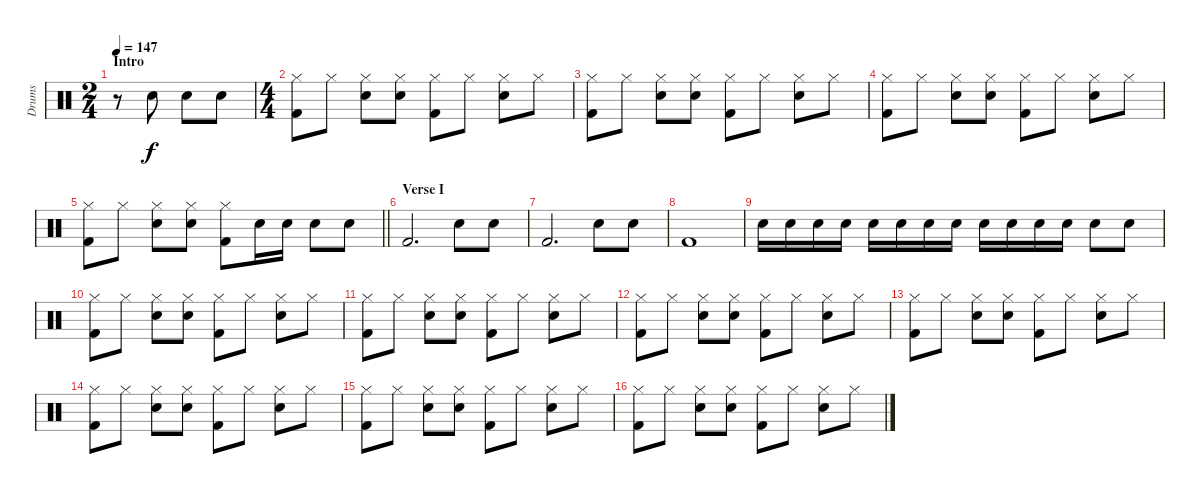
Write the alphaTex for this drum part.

\track ("Drums" "Drums") {instrument percussion}
\staff {score}
\articulation defaults
\ts (2 4)
\section ("" "Intro")
\tempo 147
\clef neutral
\ks c
r.8{dy f} "Snare (hit) 2".8 "Snare (hit) 2".8 "Snare (hit) 2".8 |
\ts (4 4)
("Hi-Hat (closed)" "Kick (hit) 2").8 "Hi-Hat (closed)".8 ("Hi-Hat (closed)" "Snare (hit) 2").8 ("Hi-Hat (closed)" "Snare (hit) 2").8 ("Hi-Hat (closed)" "Kick (hit) 2").8 "Hi-Hat (closed)".8 ("Hi-Hat (closed)" "Snare (hit) 2").8 "Hi-Hat (closed)".8 |
("Hi-Hat (closed)" "Kick (hit) 2").8 "Hi-Hat (closed)".8 ("Hi-Hat (closed)" "Snare (hit) 2").8 ("Hi-Hat (closed)" "Snare (hit) 2").8 ("Hi-Hat (closed)" "Kick (hit) 2").8 "Hi-Hat (closed)".8 ("Hi-Hat (closed)" "Snare (hit) 2").8 "Hi-Hat (closed)".8 |
("Hi-Hat (closed)" "Kick (hit) 2").8 "Hi-Hat (closed)".8 ("Hi-Hat (closed)" "Snare (hit) 2").8 ("Hi-Hat (closed)" "Snare (hit) 2").8 ("Hi-Hat (closed)" "Kick (hit) 2").8 "Hi-Hat (closed)".8 ("Hi-Hat (closed)" "Snare (hit) 2").8 "Hi-Hat (closed)".8 |
\barLineRight lightlight
("Hi-Hat (closed)" "Kick (hit) 2").8 "Hi-Hat (closed)".8 ("Hi-Hat (closed)" "Snare (hit) 2").8 ("Hi-Hat (closed)" "Snare (hit) 2").8 ("Hi-Hat (closed)" "Kick (hit) 2").8 "Snare (hit) 2".16 "Snare (hit) 2".16 "Snare (hit) 2".8 "Snare (hit) 2".8 |
\section ("" "Verse I")
"Kick (hit) 2".2{d} "Snare (hit) 2".8 "Snare (hit) 2".8 |
"Kick (hit) 2".2{d} "Snare (hit) 2".8 "Snare (hit) 2".8 |
"Kick (hit) 2".1 |
"Snare (hit) 2".16 "Snare (hit) 2".16 "Snare (hit) 2".16 "Snare (hit) 2".16 "Snare (hit) 2".16 "Snare (hit) 2".16 "Snare (hit) 2".16 "Snare (hit) 2".16 "Snare (hit) 2".16 "Snare (hit) 2".16 "Snare (hit) 2".16 "Snare (hit) 2".16 "Snare (hit) 2".8 "Snare (hit) 2".8 |
("Hi-Hat (closed)" "Kick (hit) 2").8 "Hi-Hat (closed)".8 ("Hi-Hat (closed)" "Snare (hit) 2").8 ("Hi-Hat (closed)" "Snare (hit) 2").8 ("Hi-Hat (closed)" "Kick (hit) 2").8 "Hi-Hat (closed)".8 ("Hi-Hat (closed)" "Snare (hit) 2").8 "Hi-Hat (closed)".8 |
("Hi-Hat (closed)" "Kick (hit) 2").8 "Hi-Hat (closed)".8 ("Hi-Hat (closed)" "Snare (hit) 2").8 ("Hi-Hat (closed)" "Snare (hit) 2").8 ("Hi-Hat (closed)" "Kick (hit) 2").8 "Hi-Hat (closed)".8 ("Hi-Hat (closed)" "Snare (hit) 2").8 "Hi-Hat (closed)".8 |
("Hi-Hat (closed)" "Kick (hit) 2").8 "Hi-Hat (closed)".8 ("Hi-Hat (closed)" "Snare (hit) 2").8 ("Hi-Hat (closed)" "Snare (hit) 2").8 ("Hi-Hat (closed)" "Kick (hit) 2").8 "Hi-Hat (closed)".8 ("Hi-Hat (closed)" "Snare (hit) 2").8 "Hi-Hat (closed)".8 |
("Hi-Hat (closed)" "Kick (hit) 2").8 "Hi-Hat (closed)".8 ("Hi-Hat (closed)" "Snare (hit) 2").8 ("Hi-Hat (closed)" "Snare (hit) 2").8 ("Hi-Hat (closed)" "Kick (hit) 2").8 "Hi-Hat (closed)".8 ("Hi-Hat (closed)" "Snare (hit) 2").8 "Hi-Hat (closed)".8 |
("Hi-Hat (closed)" "Kick (hit) 2").8 "Hi-Hat (closed)".8 ("Hi-Hat (closed)" "Snare (hit) 2").8 ("Hi-Hat (closed)" "Snare (hit) 2").8 ("Hi-Hat (closed)" "Kick (hit) 2").8 "Hi-Hat (closed)".8 ("Hi-Hat (closed)" "Snare (hit) 2").8 "Hi-Hat (closed)".8 |
("Hi-Hat (closed)" "Kick (hit) 2").8 "Hi-Hat (closed)".8 ("Hi-Hat (closed)" "Snare (hit) 2").8 ("Hi-Hat (closed)" "Snare (hit) 2").8 ("Hi-Hat (closed)" "Kick (hit) 2").8 "Hi-Hat (closed)".8 ("Hi-Hat (closed)" "Snare (hit) 2").8 "Hi-Hat (closed)".8 |
("Hi-Hat (closed)" "Kick (hit) 2").8 "Hi-Hat (closed)".8 ("Hi-Hat (closed)" "Snare (hit) 2").8 ("Hi-Hat (closed)" "Snare (hit) 2").8 ("Hi-Hat (closed)" "Kick (hit) 2").8 "Hi-Hat (closed)".8 ("Hi-Hat (closed)" "Snare (hit) 2").8 "Hi-Hat (closed)".8
